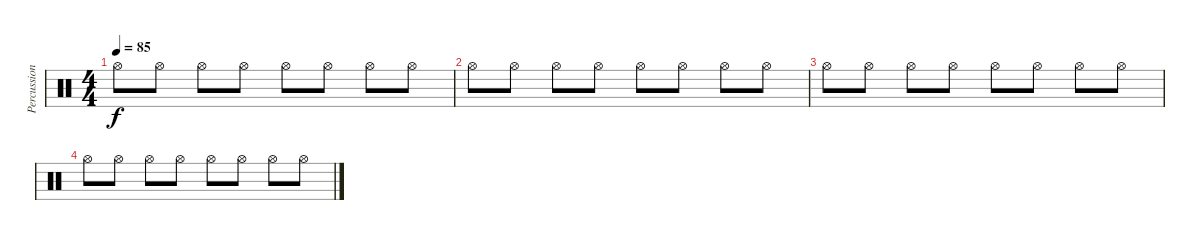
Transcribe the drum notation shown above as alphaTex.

\track ("Percussion" "Percussion") {instrument percussion}
\staff {score}
\articulation defaults
\ts (4 4)
\tempo 85
\clef neutral
\ks c "Hi-Hat (open)".8{dy f} "Hi-Hat (open)".8 "Hi-Hat (open)".8 "Hi-Hat (open)".8 "Hi-Hat (open)".8 "Hi-Hat (open)".8 "Hi-Hat (open)".8 "Hi-Hat (open)".8
|
"Hi-Hat (open)".8 "Hi-Hat (open)".8 "Hi-Hat (open)".8 "Hi-Hat (open)".8 "Hi-Hat (open)".8 "Hi-Hat (open)".8 "Hi-Hat (open)".8 "Hi-Hat (open)".8 |
"Hi-Hat (open)".8 "Hi-Hat (open)".8 "Hi-Hat (open)".8 "Hi-Hat (open)".8 "Hi-Hat (open)".8 "Hi-Hat (open)".8 "Hi-Hat (open)".8 "Hi-Hat (open)".8 |
"Hi-Hat (open)".8 "Hi-Hat (open)".8 "Hi-Hat (open)".8 "Hi-Hat (open)".8 "Hi-Hat (open)".8 "Hi-Hat (open)".8 "Hi-Hat (open)".8 "Hi-Hat (open)".8
